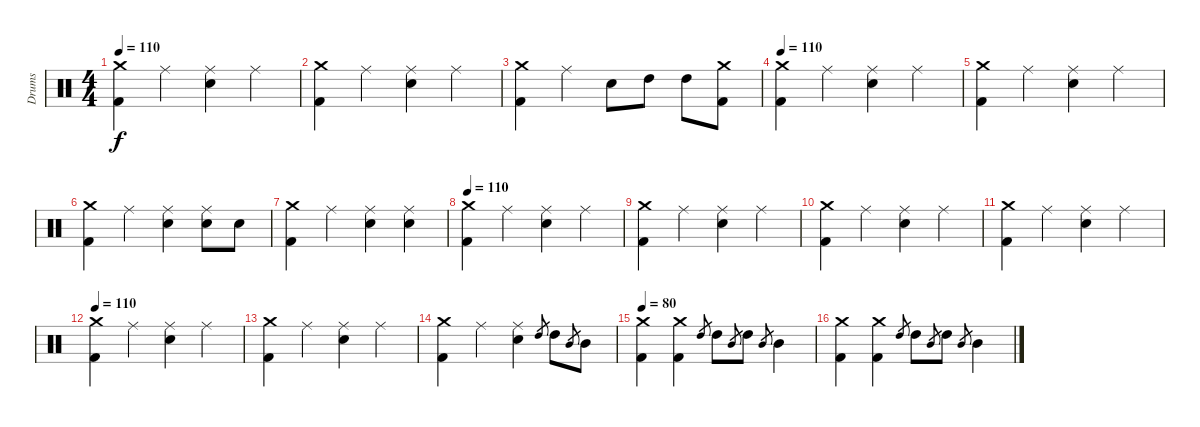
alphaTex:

\track ("Drums" "Drums") {instrument percussion}
\staff {score}
\articulation defaults
\ts (4 4)
\tempo 110
\clef neutral
\ks c
("Crash medium (hit)" "Kick (hit) 2").4{dy f} "Ride (middle)".4 ("Ride (middle)" "Electric Snare (hit)").4 "Ride (middle)".4 |
("Crash medium (hit)" "Kick (hit) 2").4 "Ride (middle)".4 ("Ride (middle)" "Electric Snare (hit)").4 "Ride (middle)".4 |
("Crash medium (hit)" "Kick (hit) 2").4 "Ride (middle)".4 "Electric Snare (hit)".8 "High Tom (hit)".8 "High Tom (hit)".8 ("Crash medium (hit)" "Kick (hit) 2").8 |
\tempo 110
("Crash medium (hit)" "Kick (hit) 2").4 "Ride (middle)".4 ("Ride (middle)" "Electric Snare (hit)").4 "Ride (middle)".4 |
("Crash medium (hit)" "Kick (hit) 2").4 "Ride (middle)".4 ("Ride (middle)" "Electric Snare (hit)").4 "Ride (middle)".4 |
("Crash medium (hit)" "Kick (hit) 2").4 "Ride (middle)".4 ("Ride (middle)" "Electric Snare (hit)").4 ("Ride (middle)" "Electric Snare (hit)").8 "Electric Snare (hit)".8 |
("Crash medium (hit)" "Kick (hit) 2").4 "Ride (middle)".4 ("Ride (middle)" "Electric Snare (hit)").4 ("Ride (middle)" "Electric Snare (hit)").4 |
\tempo 110
("Crash medium (hit)" "Kick (hit) 2").4 "Ride (middle)".4 ("Ride (middle)" "Electric Snare (hit)").4 "Ride (middle)".4 |
("Crash medium (hit)" "Kick (hit) 2").4 "Ride (middle)".4 ("Ride (middle)" "Electric Snare (hit)").4 "Ride (middle)".4 |
("Crash medium (hit)" "Kick (hit) 2").4 "Ride (middle)".4 ("Ride (middle)" "Electric Snare (hit)").4 "Ride (middle)".4 |
("Crash medium (hit)" "Kick (hit) 2").4 "Ride (middle)".4 ("Ride (middle)" "Electric Snare (hit)").4 "Ride (middle)".4 |
\tempo 110
("Crash medium (hit)" "Kick (hit) 2").4 "Ride (middle)".4 ("Ride (middle)" "Electric Snare (hit)").4 "Ride (middle)".4 |
("Crash medium (hit)" "Kick (hit) 2").4 "Ride (middle)".4 ("Ride (middle)" "Electric Snare (hit)").4 "Ride (middle)".4 |
("Crash medium (hit)" "Kick (hit) 2").4 "Ride (middle)".4 ("Ride (middle)" "Electric Snare (hit)").4 "High Tom (hit)".8{gr} "High Tom (hit)".8 "Mid Tom (hit)".8{gr} "Mid Tom (hit)".8 |
\tempo 80
("Crash medium (hit)" "Kick (hit) 2").4 ("Crash medium (hit)" "Kick (hit) 2").4 "High Tom (hit)".8{gr} "High Tom (hit)".8 "Mid Tom (hit)".8{gr} "High Tom (hit)".8 "Mid Tom (hit)".8{gr} "Mid Tom (hit)".4 |
("Crash medium (hit)" "Kick (hit) 2").4 ("Crash medium (hit)" "Kick (hit) 2").4 "High Tom (hit)".8{gr} "High Tom (hit)".8 "Mid Tom (hit)".8{gr} "High Tom (hit)".8 "Mid Tom (hit)".8{gr} "Mid Tom (hit)".4
